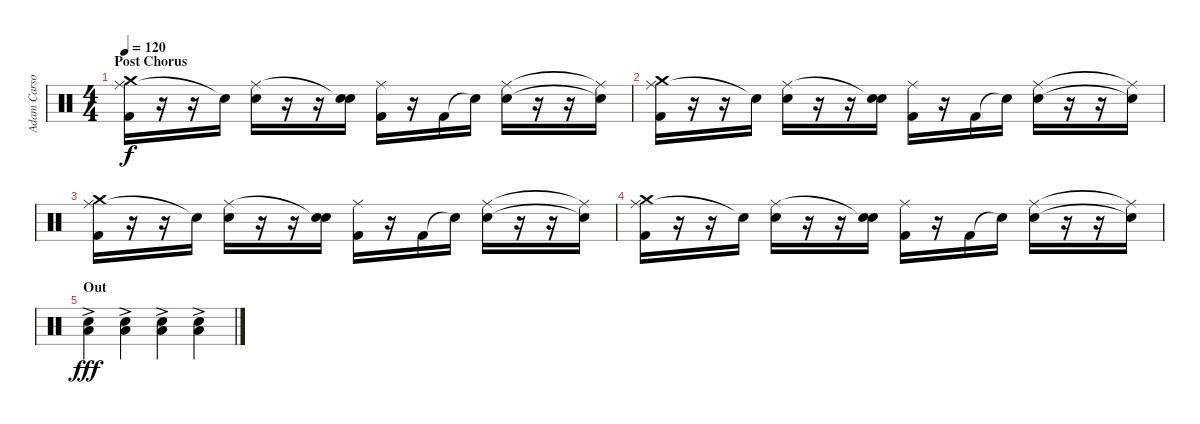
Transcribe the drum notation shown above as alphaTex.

\track ("Adam Carson-Drums" "Adam Carso") {instrument percussion}
\staff {score}
\articulation defaults
\ts (4 4)
\section ("" "Post Chorus")
\tempo 120
\clef neutral
\ks c
("Ride (middle)" "Crash medium (hit)" "Kick (hit) 2").16{dy f} r.16 r.16 "Snare (hit)"{t}.16 ("Ride (middle)" "Snare (hit) 2").16 r.16 r.16 ("Snare (hit)"{t} "Snare (hit) 2").16 ("Ride (middle)" "Kick (hit) 2").16 r.16 "Kick (hit) 2".16 "Snare (hit)"{t}.16 ("Ride (middle)" "Snare (hit) 2").16 r.16 r.16 ("Ride (middle)"{t} "Snare (hit)"{t}).16 |
("Ride (middle)" "Crash medium (hit)" "Kick (hit) 2").16 r.16 r.16 "Snare (hit)"{t}.16 ("Ride (middle)" "Snare (hit) 2").16 r.16 r.16 ("Snare (hit)"{t} "Snare (hit) 2").16 ("Ride (middle)" "Kick (hit) 2").16 r.16 "Kick (hit) 2".16 "Snare (hit)"{t}.16 ("Ride (middle)" "Snare (hit) 2").16 r.16 r.16 ("Ride (middle)"{t} "Snare (hit)"{t}).16 |
("Ride (middle)" "Crash medium (hit)" "Kick (hit) 2").16 r.16 r.16 "Snare (hit)"{t}.16 ("Ride (middle)" "Snare (hit) 2").16 r.16 r.16 ("Snare (hit)"{t} "Snare (hit) 2").16 ("Ride (middle)" "Kick (hit) 2").16 r.16 "Kick (hit) 2".16 "Snare (hit)"{t}.16 ("Ride (middle)" "Snare (hit) 2").16 r.16 r.16 ("Ride (middle)"{t} "Snare (hit)"{t}).16 |
("Ride (middle)" "Crash medium (hit)" "Kick (hit) 2").16 r.16 r.16 "Snare (hit)"{t}.16 ("Ride (middle)" "Snare (hit) 2").16 r.16 r.16 ("Snare (hit)"{t} "Snare (hit) 2").16 ("Ride (middle)" "Kick (hit) 2").16 r.16 "Kick (hit) 2".16 "Snare (hit)"{t}.16 ("Ride (middle)" "Snare (hit) 2").16 r.16 r.16 ("Ride (middle)"{t} "Snare (hit)"{t}).16 |
\section ("" "Out")
("Low Floor Tom (hit)" "Hand Clap (hit)"{ac}).4{dy fff} ("Low Floor Tom (hit)" "Hand Clap (hit)"{ac}).4 ("Low Floor Tom (hit)" "Hand Clap (hit)"{ac}).4 ("Low Floor Tom (hit)" "Hand Clap (hit)"{ac}).4
